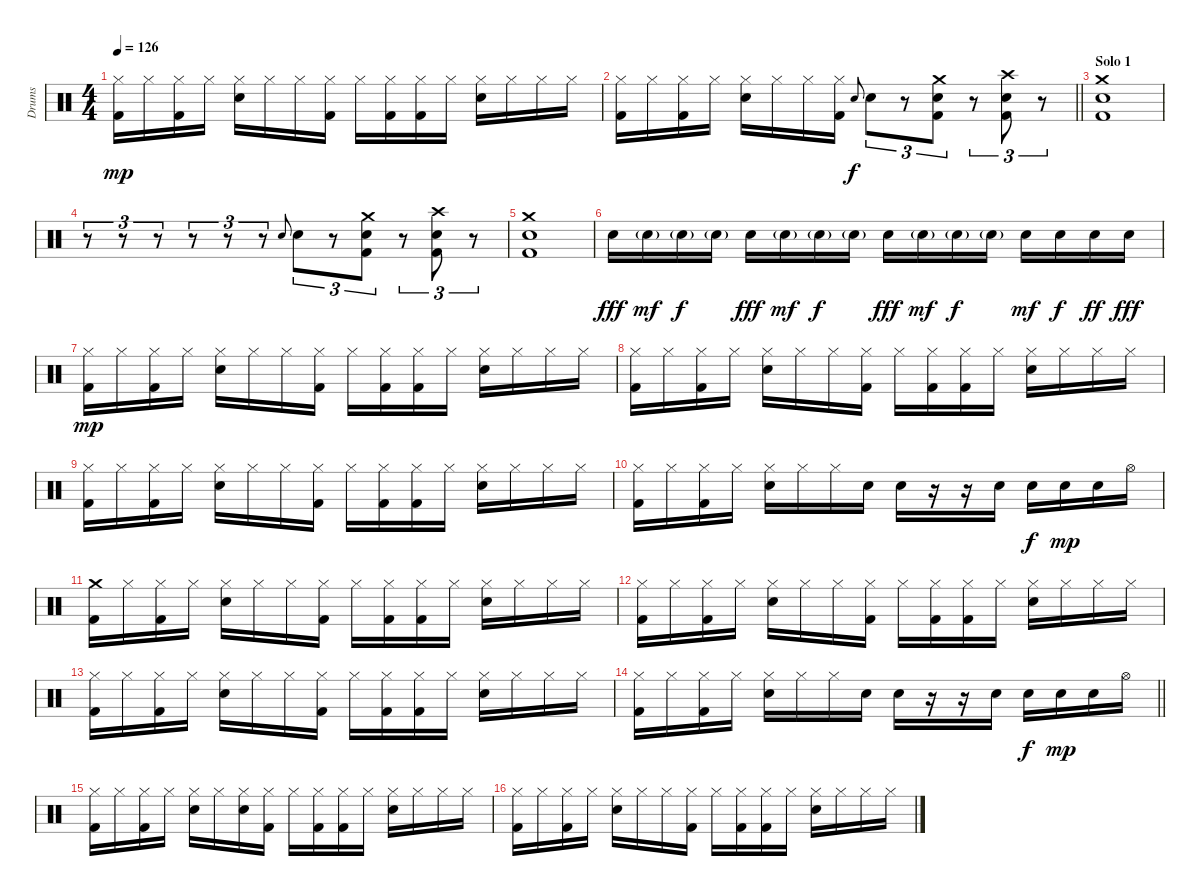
\track ("Drums" "Drums") {instrument percussion}
\staff {score}
\articulation defaults
\ts (4 4)
\tempo 126
\clef neutral
\ks c
("Hi-Hat (closed)" "Kick (hit) 2").16{dy mp} "Hi-Hat (closed)".16 ("Hi-Hat (closed)" "Kick (hit) 2").16 "Hi-Hat (closed)".16 ("Hi-Hat (closed)" "Snare (hit) 2").16 "Hi-Hat (closed)".16 "Hi-Hat (closed)".16 ("Hi-Hat (closed)" "Kick (hit) 2").16 "Hi-Hat (closed)".16 ("Hi-Hat (closed)" "Kick (hit) 2").16 ("Hi-Hat (closed)" "Kick (hit) 2").16 "Hi-Hat (closed)".16 ("Hi-Hat (closed)" "Snare (hit) 2").16 "Hi-Hat (closed)".16 "Hi-Hat (closed)".16 "Hi-Hat (closed)".16 |
\barLineRight lightlight
("Hi-Hat (closed)" "Kick (hit) 2").16 "Hi-Hat (closed)".16 ("Hi-Hat (closed)" "Kick (hit) 2").16 "Hi-Hat (closed)".16 ("Hi-Hat (closed)" "Snare (hit) 2").16 "Hi-Hat (closed)".16 "Hi-Hat (closed)".16 ("Hi-Hat (closed)" "Kick (hit) 2").16 "Snare (hit) 2".8{gr onbeat dy f} "Snare (hit) 2".8{tu (3 2)} r.8{tu (3 2)} ("Crash medium (hit)" "Snare (hit) 2" "Kick (hit) 2").8{tu (3 2)} r.8{tu (3 2)} ("Crash high (hit)" "Snare (hit) 2" "Kick (hit) 2").8{tu (3 2)} r.8{tu (3 2)} |
\section ("" "Solo 1")
("Crash medium (hit)" "Snare (hit) 2" "Kick (hit) 2").1 |
r.8{tu (3 2)} r.8{tu (3 2)} r.8{tu (3 2)} r.8{tu (3 2)} r.8{tu (3 2)} r.8{tu (3 2)} "Snare (hit) 2".8{gr onbeat} "Snare (hit) 2".8{tu (3 2)} r.8{tu (3 2)} ("Crash medium (hit)" "Snare (hit) 2" "Kick (hit) 2").8{tu (3 2)} r.8{tu (3 2)} ("Crash high (hit)" "Snare (hit) 2" "Kick (hit) 2").8{tu (3 2)} r.8{tu (3 2)} |
("Crash medium (hit)" "Snare (hit) 2" "Kick (hit) 2").1 |
"Snare (hit) 2".16{dy fff} "Snare (hit) 2"{g}.16{dy mf} "Snare (hit) 2"{g}.16{dy f} "Snare (hit) 2"{g}.16 "Snare (hit) 2".16{dy fff} "Snare (hit) 2"{g}.16{dy mf} "Snare (hit) 2"{g}.16{dy f} "Snare (hit) 2"{g}.16 "Snare (hit) 2".16{dy fff} "Snare (hit) 2"{g}.16{dy mf} "Snare (hit) 2"{g}.16{dy f} "Snare (hit) 2"{g}.16 "Snare (hit) 2".16{dy mf} "Snare (hit) 2".16{dy f} "Snare (hit) 2".16{dy ff} "Snare (hit) 2".16{dy fff} |
("Hi-Hat (closed)" "Kick (hit) 2").16{dy mp} "Hi-Hat (closed)".16 ("Hi-Hat (closed)" "Kick (hit) 2").16 "Hi-Hat (closed)".16 ("Hi-Hat (closed)" "Snare (hit) 2").16 "Hi-Hat (closed)".16 "Hi-Hat (closed)".16 ("Hi-Hat (closed)" "Kick (hit) 2").16 "Hi-Hat (closed)".16 ("Hi-Hat (closed)" "Kick (hit) 2").16 ("Hi-Hat (closed)" "Kick (hit) 2").16 "Hi-Hat (closed)".16 ("Hi-Hat (closed)" "Snare (hit) 2").16 "Hi-Hat (closed)".16 "Hi-Hat (closed)".16 "Hi-Hat (closed)".16 |
("Hi-Hat (closed)" "Kick (hit) 2").16 "Hi-Hat (closed)".16 ("Hi-Hat (closed)" "Kick (hit) 2").16 "Hi-Hat (closed)".16 ("Hi-Hat (closed)" "Snare (hit) 2").16 "Hi-Hat (closed)".16 "Hi-Hat (closed)".16 ("Hi-Hat (closed)" "Kick (hit) 2").16 "Hi-Hat (closed)".16 ("Hi-Hat (closed)" "Kick (hit) 2").16 ("Hi-Hat (closed)" "Kick (hit) 2").16 "Hi-Hat (closed)".16 ("Hi-Hat (closed)" "Snare (hit) 2").16 "Hi-Hat (closed)".16 "Hi-Hat (closed)".16 "Hi-Hat (closed)".16 |
("Hi-Hat (closed)" "Kick (hit) 2").16 "Hi-Hat (closed)".16 ("Hi-Hat (closed)" "Kick (hit) 2").16 "Hi-Hat (closed)".16 ("Hi-Hat (closed)" "Snare (hit) 2").16 "Hi-Hat (closed)".16 "Hi-Hat (closed)".16 ("Hi-Hat (closed)" "Kick (hit) 2").16 "Hi-Hat (closed)".16 ("Hi-Hat (closed)" "Kick (hit) 2").16 ("Hi-Hat (closed)" "Kick (hit) 2").16 "Hi-Hat (closed)".16 ("Hi-Hat (closed)" "Snare (hit) 2").16 "Hi-Hat (closed)".16 "Hi-Hat (closed)".16 "Hi-Hat (closed)".16 |
("Hi-Hat (closed)" "Kick (hit) 2").16 "Hi-Hat (closed)".16 ("Hi-Hat (closed)" "Kick (hit) 2").16 "Hi-Hat (closed)".16 ("Hi-Hat (closed)" "Snare (hit) 2").16 "Hi-Hat (closed)".16 "Hi-Hat (closed)".16 "Snare (hit) 2".16 "Snare (hit) 2".16 r.16 r.16 "Snare (hit) 2".16 "Snare (hit) 2".16{dy f} "Snare (hit) 2".16{dy mp} "Snare (hit) 2".16 "Hi-Hat (open)".16 |
("Crash medium (hit)" "Kick (hit) 2").16 "Hi-Hat (closed)".16 ("Hi-Hat (closed)" "Kick (hit) 2").16 "Hi-Hat (closed)".16 ("Hi-Hat (closed)" "Snare (hit) 2").16 "Hi-Hat (closed)".16 "Hi-Hat (closed)".16 ("Hi-Hat (closed)" "Kick (hit) 2").16 "Hi-Hat (closed)".16 ("Hi-Hat (closed)" "Kick (hit) 2").16 ("Hi-Hat (closed)" "Kick (hit) 2").16 "Hi-Hat (closed)".16 ("Hi-Hat (closed)" "Snare (hit) 2").16 "Hi-Hat (closed)".16 "Hi-Hat (closed)".16 "Hi-Hat (closed)".16 |
("Hi-Hat (closed)" "Kick (hit) 2").16 "Hi-Hat (closed)".16 ("Hi-Hat (closed)" "Kick (hit) 2").16 "Hi-Hat (closed)".16 ("Hi-Hat (closed)" "Snare (hit) 2").16 "Hi-Hat (closed)".16 "Hi-Hat (closed)".16 ("Hi-Hat (closed)" "Kick (hit) 2").16 "Hi-Hat (closed)".16 ("Hi-Hat (closed)" "Kick (hit) 2").16 ("Hi-Hat (closed)" "Kick (hit) 2").16 "Hi-Hat (closed)".16 ("Hi-Hat (closed)" "Snare (hit) 2").16 "Hi-Hat (closed)".16 "Hi-Hat (closed)".16 "Hi-Hat (closed)".16 |
("Hi-Hat (closed)" "Kick (hit) 2").16 "Hi-Hat (closed)".16 ("Hi-Hat (closed)" "Kick (hit) 2").16 "Hi-Hat (closed)".16 ("Hi-Hat (closed)" "Snare (hit) 2").16 "Hi-Hat (closed)".16 "Hi-Hat (closed)".16 ("Hi-Hat (closed)" "Kick (hit) 2").16 "Hi-Hat (closed)".16 ("Hi-Hat (closed)" "Kick (hit) 2").16 ("Hi-Hat (closed)" "Kick (hit) 2").16 "Hi-Hat (closed)".16 ("Hi-Hat (closed)" "Snare (hit) 2").16 "Hi-Hat (closed)".16 "Hi-Hat (closed)".16 "Hi-Hat (closed)".16 |
\barLineRight lightlight
("Hi-Hat (closed)" "Kick (hit) 2").16 "Hi-Hat (closed)".16 ("Hi-Hat (closed)" "Kick (hit) 2").16 "Hi-Hat (closed)".16 ("Hi-Hat (closed)" "Snare (hit) 2").16 "Hi-Hat (closed)".16 "Hi-Hat (closed)".16 "Snare (hit) 2".16 "Snare (hit) 2".16 r.16 r.16 "Snare (hit) 2".16 "Snare (hit) 2".16{dy f} "Snare (hit) 2".16{dy mp} "Snare (hit) 2".16 "Hi-Hat (open)".16 |
("Hi-Hat (closed)" "Kick (hit) 2").16 "Hi-Hat (closed)".16 ("Hi-Hat (closed)" "Kick (hit) 2").16 "Hi-Hat (closed)".16 ("Hi-Hat (closed)" "Snare (hit) 2").16 "Hi-Hat (closed)".16 ("Hi-Hat (closed)" "Snare (hit) 2").16 ("Hi-Hat (closed)" "Kick (hit) 2").16 "Hi-Hat (closed)".16 ("Hi-Hat (closed)" "Kick (hit) 2").16 ("Hi-Hat (closed)" "Kick (hit) 2").16 "Hi-Hat (closed)".16 ("Hi-Hat (closed)" "Snare (hit) 2").16 "Hi-Hat (closed)".16 "Hi-Hat (closed)".16 "Hi-Hat (closed)".16 |
("Hi-Hat (closed)" "Kick (hit) 2").16 "Hi-Hat (closed)".16 ("Hi-Hat (closed)" "Kick (hit) 2").16 "Hi-Hat (closed)".16 ("Hi-Hat (closed)" "Snare (hit) 2").16 "Hi-Hat (closed)".16 "Hi-Hat (closed)".16 ("Hi-Hat (closed)" "Kick (hit) 2").16 "Hi-Hat (closed)".16 ("Hi-Hat (closed)" "Kick (hit) 2").16 ("Hi-Hat (closed)" "Kick (hit) 2").16 "Hi-Hat (closed)".16 ("Hi-Hat (closed)" "Snare (hit) 2").16 "Hi-Hat (closed)".16 "Hi-Hat (closed)".16 "Hi-Hat (closed)".16
